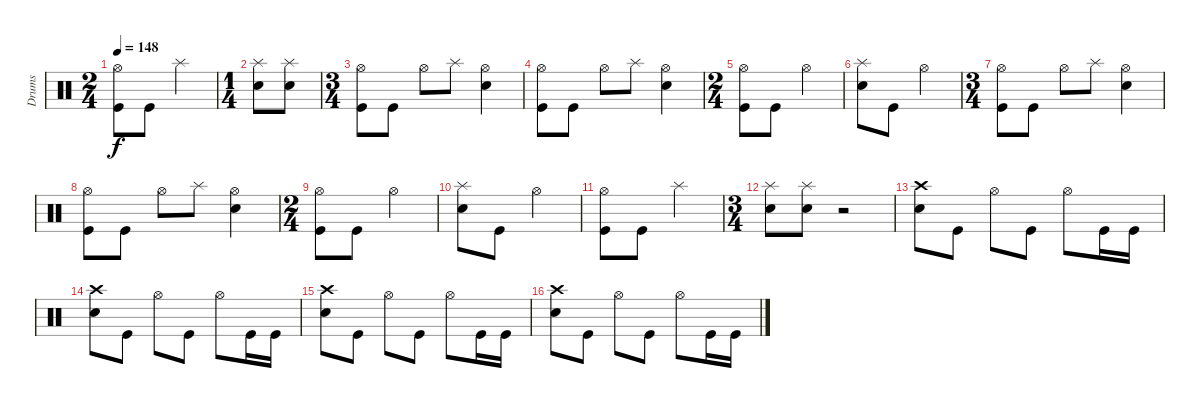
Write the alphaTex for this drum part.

\track ("Drums" "Drums") {instrument percussion}
\staff {score}
\articulation defaults
\ts (2 4)
\tempo 148
\clef neutral
\ks c
("Hi-Hat (open)" "Kick (hit)").8{dy f} "Kick (hit)".8 "Splash (hit)".4 |
\ts (1 4)
("Snare (hit) 2" "Splash (hit)").8 ("Snare (hit) 2" "Splash (hit)").8 |
\ts (3 4)
("Hi-Hat (open)" "Kick (hit)").8 "Kick (hit)".8 "Hi-Hat (open)".8 "Splash (hit)".8 ("Hi-Hat (open)" "Snare (hit) 2").4 |
("Hi-Hat (open)" "Kick (hit)").8 "Kick (hit)".8 "Hi-Hat (open)".8 "Splash (hit)".8 ("Hi-Hat (open)" "Snare (hit) 2").4 |
\ts (2 4)
("Hi-Hat (open)" "Kick (hit)").8 "Kick (hit)".8 "Hi-Hat (open)".4 |
("Splash (hit)" "Snare (hit) 2").8 "Kick (hit)".8 "Hi-Hat (open)".4 |
\ts (3 4)
("Hi-Hat (open)" "Kick (hit)").8 "Kick (hit)".8 "Hi-Hat (open)".8 "Splash (hit)".8 ("Hi-Hat (open)" "Snare (hit) 2").4 |
("Hi-Hat (open)" "Kick (hit)").8 "Kick (hit)".8 "Hi-Hat (open)".8 "Splash (hit)".8 ("Hi-Hat (open)" "Snare (hit) 2").4 |
\ts (2 4)
("Hi-Hat (open)" "Kick (hit)").8 "Kick (hit)".8 "Hi-Hat (open)".4 |
("Splash (hit)" "Snare (hit) 2").8 "Kick (hit)".8 "Hi-Hat (open)".4 |
("Hi-Hat (open)" "Kick (hit)").8 "Kick (hit)".8 "Splash (hit)".4 |
\ts (3 4)
("Snare (hit) 2" "Splash (hit)").8 ("Snare (hit) 2" "Splash (hit)").8 r.2 |
("Crash high (hit)" "Snare (hit) 2").8 "Kick (hit)".8 "Hi-Hat (open)".8 "Kick (hit)".8 "Hi-Hat (open)".8 "Kick (hit)".16 "Kick (hit)".16 |
("Crash high (hit)" "Snare (hit) 2").8 "Kick (hit)".8 "Hi-Hat (open)".8 "Kick (hit)".8 "Hi-Hat (open)".8 "Kick (hit)".16 "Kick (hit)".16 |
("Crash high (hit)" "Snare (hit) 2").8 "Kick (hit)".8 "Hi-Hat (open)".8 "Kick (hit)".8 "Hi-Hat (open)".8 "Kick (hit)".16 "Kick (hit)".16 |
("Crash high (hit)" "Snare (hit) 2").8 "Kick (hit)".8 "Hi-Hat (open)".8 "Kick (hit)".8 "Hi-Hat (open)".8 "Kick (hit)".16 "Kick (hit)".16
